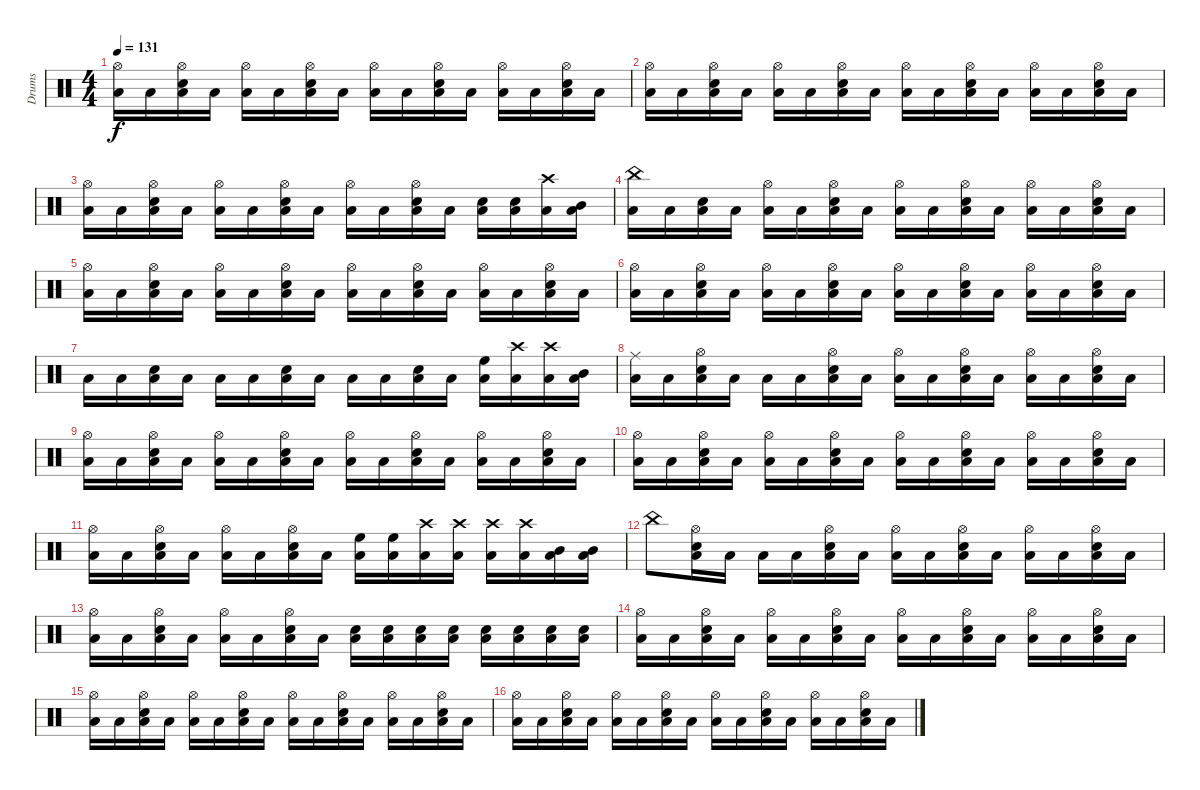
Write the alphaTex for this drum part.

\track ("Drums" "Drums") {instrument percussion}
\staff {score}
\articulation defaults
\ts (4 4)
\tempo 131
\clef neutral
\ks c
("Hi-Hat (open)" "Low Tom (hit)").16{dy f} "Low Tom (hit)".16 ("Hi-Hat (open)" "Electric Snare (hit)" "Low Tom (hit)").16 "Low Tom (hit)".16 ("Hi-Hat (open)" "Low Tom (hit)").16 "Low Tom (hit)".16 ("Hi-Hat (open)" "Electric Snare (hit)" "Low Tom (hit)").16 "Low Tom (hit)".16 ("Hi-Hat (open)" "Low Tom (hit)").16 "Low Tom (hit)".16 ("Hi-Hat (open)" "Electric Snare (hit)" "Low Tom (hit)").16 "Low Tom (hit)".16 ("Hi-Hat (open)" "Low Tom (hit)").16 "Low Tom (hit)".16 ("Hi-Hat (open)" "Electric Snare (hit)" "Low Tom (hit)").16 "Low Tom (hit)".16 |
("Hi-Hat (open)" "Low Tom (hit)").16 "Low Tom (hit)".16 ("Hi-Hat (open)" "Electric Snare (hit)" "Low Tom (hit)").16 "Low Tom (hit)".16 ("Hi-Hat (open)" "Low Tom (hit)").16 "Low Tom (hit)".16 ("Hi-Hat (open)" "Electric Snare (hit)" "Low Tom (hit)").16 "Low Tom (hit)".16 ("Hi-Hat (open)" "Low Tom (hit)").16 "Low Tom (hit)".16 ("Hi-Hat (open)" "Electric Snare (hit)" "Low Tom (hit)").16 "Low Tom (hit)".16 ("Hi-Hat (open)" "Low Tom (hit)").16 "Low Tom (hit)".16 ("Hi-Hat (open)" "Electric Snare (hit)" "Low Tom (hit)").16 "Low Tom (hit)".16 |
("Hi-Hat (open)" "Low Tom (hit)").16 "Low Tom (hit)".16 ("Hi-Hat (open)" "Low Tom (hit)" "Electric Snare (hit)").16 "Low Tom (hit)".16 ("Hi-Hat (open)" "Low Tom (hit)").16 "Low Tom (hit)".16 ("Hi-Hat (open)" "Low Tom (hit)" "Electric Snare (hit)").16 "Low Tom (hit)".16 ("Hi-Hat (open)" "Low Tom (hit)").16 "Low Tom (hit)".16 ("Hi-Hat (open)" "Low Tom (hit)" "Electric Snare (hit)").16 "Low Tom (hit)".16 ("Low Tom (hit)" "Electric Snare (hit)").16 ("Low Tom (hit)" "Electric Snare (hit)").16 ("Low Tom (hit)" "Crash high (hit)").16 ("Low Tom (hit)" "Mid Tom (hit)").16 |
("Low Tom (hit)" "China (hit)").16 "Low Tom (hit)".16 ("Low Tom (hit)" "Electric Snare (hit)").16 "Low Tom (hit)".16 ("Hi-Hat (open)" "Low Tom (hit)").16 "Low Tom (hit)".16 ("Hi-Hat (open)" "Low Tom (hit)" "Electric Snare (hit)").16 "Low Tom (hit)".16 ("Hi-Hat (open)" "Low Tom (hit)").16 "Low Tom (hit)".16 ("Hi-Hat (open)" "Low Tom (hit)" "Electric Snare (hit)").16 "Low Tom (hit)".16 ("Hi-Hat (open)" "Low Tom (hit)").16 "Low Tom (hit)".16 ("Hi-Hat (open)" "Low Tom (hit)" "Electric Snare (hit)").16 "Low Tom (hit)".16 |
("Hi-Hat (open)" "Low Tom (hit)").16 "Low Tom (hit)".16 ("Hi-Hat (open)" "Electric Snare (hit)" "Low Tom (hit)").16 "Low Tom (hit)".16 ("Hi-Hat (open)" "Low Tom (hit)").16 "Low Tom (hit)".16 ("Hi-Hat (open)" "Electric Snare (hit)" "Low Tom (hit)").16 "Low Tom (hit)".16 ("Hi-Hat (open)" "Low Tom (hit)").16 "Low Tom (hit)".16 ("Hi-Hat (open)" "Electric Snare (hit)" "Low Tom (hit)").16 "Low Tom (hit)".16 ("Hi-Hat (open)" "Low Tom (hit)").16 "Low Tom (hit)".16 ("Hi-Hat (open)" "Electric Snare (hit)" "Low Tom (hit)").16 "Low Tom (hit)".16 |
("Hi-Hat (open)" "Low Tom (hit)").16 "Low Tom (hit)".16 ("Hi-Hat (open)" "Low Tom (hit)" "Electric Snare (hit)").16 "Low Tom (hit)".16 ("Hi-Hat (open)" "Low Tom (hit)").16 "Low Tom (hit)".16 ("Hi-Hat (open)" "Low Tom (hit)" "Electric Snare (hit)").16 "Low Tom (hit)".16 ("Hi-Hat (open)" "Low Tom (hit)").16 "Low Tom (hit)".16 ("Hi-Hat (open)" "Low Tom (hit)" "Electric Snare (hit)").16 "Low Tom (hit)".16 ("Hi-Hat (open)" "Low Tom (hit)").16 "Low Tom (hit)".16 ("Hi-Hat (open)" "Low Tom (hit)" "Electric Snare (hit)").16 "Low Tom (hit)".16 |
"Low Tom (hit)".16 "Low Tom (hit)".16 ("Electric Snare (hit)" "Low Tom (hit)").16 "Low Tom (hit)".16 "Low Tom (hit)".16 "Low Tom (hit)".16 ("Electric Snare (hit)" "Low Tom (hit)").16 "Low Tom (hit)".16 "Low Tom (hit)".16 "Low Tom (hit)".16 ("Electric Snare (hit)" "Low Tom (hit)").16 "Low Tom (hit)".16 ("High Floor Tom (hit)" "Low Tom (hit)").16 ("Crash high (hit)" "Low Tom (hit)").16 ("Crash high (hit)" "Low Tom (hit)").16 ("Mid Tom (hit)" "Low Tom (hit)").16 |
("Ride (middle)" "Low Tom (hit)").16 "Low Tom (hit)".16 ("Electric Snare (hit)" "Low Tom (hit)" "Hi-Hat (open)").16 "Low Tom (hit)".16 "Low Tom (hit)".16 "Low Tom (hit)".16 ("Electric Snare (hit)" "Low Tom (hit)" "Hi-Hat (open)").16 "Low Tom (hit)".16 ("Low Tom (hit)" "Hi-Hat (open)").16 "Low Tom (hit)".16 ("Electric Snare (hit)" "Low Tom (hit)" "Hi-Hat (open)").16 "Low Tom (hit)".16 ("Low Tom (hit)" "Hi-Hat (open)").16 "Low Tom (hit)".16 ("Electric Snare (hit)" "Low Tom (hit)" "Hi-Hat (open)").16 "Low Tom (hit)".16 |
("Low Tom (hit)" "Hi-Hat (open)").16 "Low Tom (hit)".16 ("Electric Snare (hit)" "Low Tom (hit)" "Hi-Hat (open)").16 "Low Tom (hit)".16 ("Low Tom (hit)" "Hi-Hat (open)").16 "Low Tom (hit)".16 ("Electric Snare (hit)" "Low Tom (hit)" "Hi-Hat (open)").16 "Low Tom (hit)".16 ("Low Tom (hit)" "Hi-Hat (open)").16 "Low Tom (hit)".16 ("Electric Snare (hit)" "Low Tom (hit)" "Hi-Hat (open)").16 "Low Tom (hit)".16 ("Low Tom (hit)" "Hi-Hat (open)").16 "Low Tom (hit)".16 ("Electric Snare (hit)" "Low Tom (hit)" "Hi-Hat (open)").16 "Low Tom (hit)".16 |
("Low Tom (hit)" "Hi-Hat (open)").16 "Low Tom (hit)".16 ("Electric Snare (hit)" "Low Tom (hit)" "Hi-Hat (open)").16 "Low Tom (hit)".16 ("Low Tom (hit)" "Hi-Hat (open)").16 "Low Tom (hit)".16 ("Electric Snare (hit)" "Low Tom (hit)" "Hi-Hat (open)").16 "Low Tom (hit)".16 ("Low Tom (hit)" "Hi-Hat (open)").16 "Low Tom (hit)".16 ("Electric Snare (hit)" "Low Tom (hit)" "Hi-Hat (open)").16 "Low Tom (hit)".16 ("Low Tom (hit)" "Hi-Hat (open)").16 "Low Tom (hit)".16 ("Electric Snare (hit)" "Low Tom (hit)" "Hi-Hat (open)").16 "Low Tom (hit)".16 |
("Low Tom (hit)" "Hi-Hat (open)").16 "Low Tom (hit)".16 ("Electric Snare (hit)" "Low Tom (hit)" "Hi-Hat (open)").16 "Low Tom (hit)".16 ("Low Tom (hit)" "Hi-Hat (open)").16 "Low Tom (hit)".16 ("Electric Snare (hit)" "Low Tom (hit)" "Hi-Hat (open)").16 "Low Tom (hit)".16 ("High Floor Tom (hit)" "Low Tom (hit)").16 ("High Floor Tom (hit)" "Low Tom (hit)").16 ("Crash high (hit)" "Low Tom (hit)").16 ("Crash high (hit)" "Low Tom (hit)").16 ("Crash high (hit)" "Low Tom (hit)").16 ("Crash high (hit)" "Low Tom (hit)").16 ("Mid Tom (hit)" "Low Tom (hit)").16 ("Mid Tom (hit)" "Low Tom (hit)").16 |
"China (hit)".8 ("Hi-Hat (open)" "Low Tom (hit)" "Electric Snare (hit)").16 "Low Tom (hit)".16 "Low Tom (hit)".16 "Low Tom (hit)".16 ("Hi-Hat (open)" "Low Tom (hit)" "Electric Snare (hit)").16 "Low Tom (hit)".16 ("Hi-Hat (open)" "Low Tom (hit)").16 "Low Tom (hit)".16 ("Hi-Hat (open)" "Low Tom (hit)" "Electric Snare (hit)").16 "Low Tom (hit)".16 ("Hi-Hat (open)" "Low Tom (hit)").16 "Low Tom (hit)".16 ("Hi-Hat (open)" "Low Tom (hit)" "Electric Snare (hit)").16 "Low Tom (hit)".16 |
("Hi-Hat (open)" "Low Tom (hit)").16 "Low Tom (hit)".16 ("Hi-Hat (open)" "Low Tom (hit)" "Electric Snare (hit)").16 "Low Tom (hit)".16 ("Hi-Hat (open)" "Low Tom (hit)").16 "Low Tom (hit)".16 ("Hi-Hat (open)" "Low Tom (hit)" "Electric Snare (hit)").16 "Low Tom (hit)".16 ("Low Tom (hit)" "Electric Snare (hit)").16 ("Low Tom (hit)" "Electric Snare (hit)").16 ("Low Tom (hit)" "Electric Snare (hit)").16 ("Low Tom (hit)" "Electric Snare (hit)").16 ("Low Tom (hit)" "Electric Snare (hit)").16 ("Low Tom (hit)" "Electric Snare (hit)").16 ("Low Tom (hit)" "Electric Snare (hit)").16 ("Low Tom (hit)" "Electric Snare (hit)").16 |
("Hi-Hat (open)" "Low Tom (hit)").16 "Low Tom (hit)".16 ("Hi-Hat (open)" "Low Tom (hit)" "Electric Snare (hit)").16 "Low Tom (hit)".16 ("Hi-Hat (open)" "Low Tom (hit)").16 "Low Tom (hit)".16 ("Hi-Hat (open)" "Low Tom (hit)" "Electric Snare (hit)").16 "Low Tom (hit)".16 ("Hi-Hat (open)" "Low Tom (hit)").16 "Low Tom (hit)".16 ("Hi-Hat (open)" "Low Tom (hit)" "Electric Snare (hit)").16 "Low Tom (hit)".16 ("Hi-Hat (open)" "Low Tom (hit)").16 "Low Tom (hit)".16 ("Hi-Hat (open)" "Low Tom (hit)" "Electric Snare (hit)").16 "Low Tom (hit)".16 |
("Hi-Hat (open)" "Low Tom (hit)").16 "Low Tom (hit)".16 ("Hi-Hat (open)" "Low Tom (hit)" "Electric Snare (hit)").16 "Low Tom (hit)".16 ("Hi-Hat (open)" "Low Tom (hit)").16 "Low Tom (hit)".16 ("Hi-Hat (open)" "Low Tom (hit)" "Electric Snare (hit)").16 "Low Tom (hit)".16 ("Hi-Hat (open)" "Low Tom (hit)").16 "Low Tom (hit)".16 ("Hi-Hat (open)" "Low Tom (hit)" "Electric Snare (hit)").16 "Low Tom (hit)".16 ("Hi-Hat (open)" "Low Tom (hit)").16 "Low Tom (hit)".16 ("Hi-Hat (open)" "Low Tom (hit)" "Electric Snare (hit)").16 "Low Tom (hit)".16 |
("Hi-Hat (open)" "Low Tom (hit)").16 "Low Tom (hit)".16 ("Hi-Hat (open)" "Low Tom (hit)" "Electric Snare (hit)").16 "Low Tom (hit)".16 ("Hi-Hat (open)" "Low Tom (hit)").16 "Low Tom (hit)".16 ("Hi-Hat (open)" "Low Tom (hit)" "Electric Snare (hit)").16 "Low Tom (hit)".16 ("Hi-Hat (open)" "Low Tom (hit)").16 "Low Tom (hit)".16 ("Hi-Hat (open)" "Low Tom (hit)" "Electric Snare (hit)").16 "Low Tom (hit)".16 ("Hi-Hat (open)" "Low Tom (hit)").16 "Low Tom (hit)".16 ("Hi-Hat (open)" "Low Tom (hit)" "Electric Snare (hit)").16 "Low Tom (hit)".16
